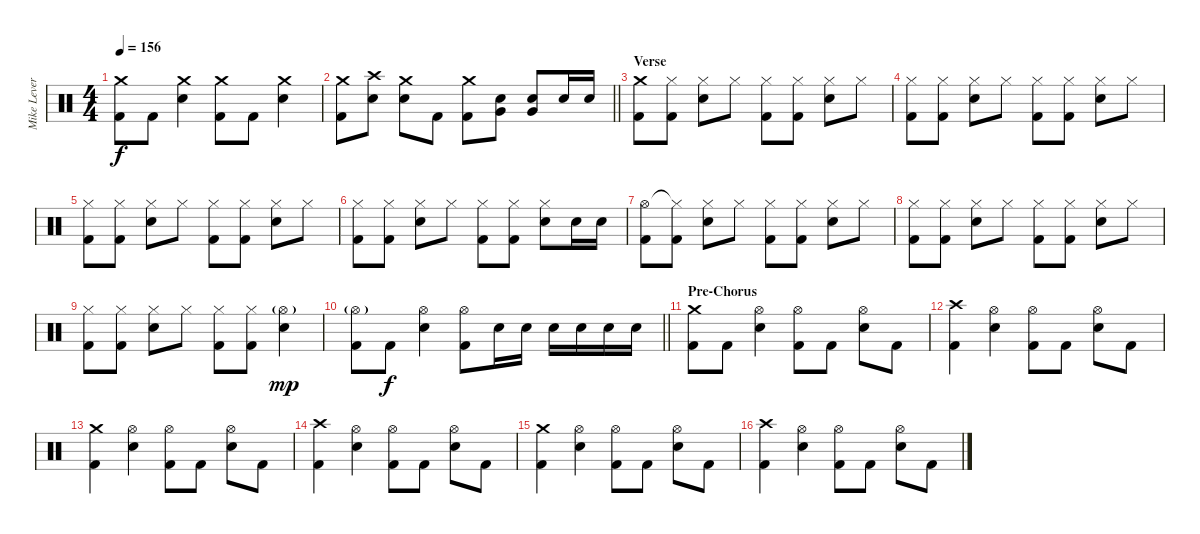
\track ("Mike Leverence - Drums" "Mike Lever") {instrument percussion}
\staff {score}
\articulation defaults
\ts (4 4)
\tempo 156
\clef neutral
\ks c
("Crash medium (hit)" "Kick (hit) 2").8{dy f} "Kick (hit) 2".8 ("Crash medium (hit)" "Electric Snare (hit)").4 ("Crash medium (hit)" "Kick (hit) 2").8 "Kick (hit) 2".8 ("Crash medium (hit)" "Electric Snare (hit)").4 |
\barLineRight lightlight
("Crash medium (hit)" "Kick (hit) 2").8 ("Crash high (hit)" "Electric Snare (hit)").8 ("Crash medium (hit)" "Electric Snare (hit)").8 "Kick (hit) 2".8 ("Crash medium (hit)" "Kick (hit) 2").8 ("Very Low Tom (hit)" "Electric Snare (hit)").8 ("Very Low Tom (hit)" "Electric Snare (hit)").8 "Electric Snare (hit)".16 "Electric Snare (hit)".16 |
\section ("" "Verse")
("Crash medium (hit)" "Kick (hit) 2").8 ("Hi-Hat (closed)" "Kick (hit) 2").8 ("Hi-Hat (closed)" "Electric Snare (hit)").8 "Hi-Hat (closed)".8 ("Hi-Hat (closed)" "Kick (hit) 2").8 ("Hi-Hat (closed)" "Kick (hit) 2").8 ("Hi-Hat (closed)" "Electric Snare (hit)").8 "Hi-Hat (closed)".8 |
("Hi-Hat (closed)" "Kick (hit) 2").8 ("Hi-Hat (closed)" "Kick (hit) 2").8 ("Hi-Hat (closed)" "Electric Snare (hit)").8 "Hi-Hat (closed)".8 ("Hi-Hat (closed)" "Kick (hit) 2").8 ("Hi-Hat (closed)" "Kick (hit) 2").8 ("Hi-Hat (closed)" "Electric Snare (hit)").8 "Hi-Hat (closed)".8 |
("Hi-Hat (closed)" "Kick (hit) 2").8 ("Hi-Hat (closed)" "Kick (hit) 2").8 ("Hi-Hat (closed)" "Electric Snare (hit)").8 "Hi-Hat (closed)".8 ("Hi-Hat (closed)" "Kick (hit) 2").8 ("Hi-Hat (closed)" "Kick (hit) 2").8 ("Hi-Hat (closed)" "Electric Snare (hit)").8 "Hi-Hat (closed)".8 |
("Hi-Hat (closed)" "Kick (hit) 2").8 ("Hi-Hat (closed)" "Kick (hit) 2").8 ("Hi-Hat (closed)" "Electric Snare (hit)").8 "Hi-Hat (closed)".8 ("Hi-Hat (closed)" "Kick (hit) 2").8 ("Hi-Hat (closed)" "Kick (hit) 2").8 ("Hi-Hat (closed)" "Electric Snare (hit)").8 "Electric Snare (hit)".16 "Electric Snare (hit)".16 |
("Hi-Hat (open)" "Kick (hit) 2").8 ("Hi-Hat (closed)"{t} "Kick (hit) 2").8 ("Hi-Hat (closed)" "Electric Snare (hit)").8 "Hi-Hat (closed)".8 ("Hi-Hat (closed)" "Kick (hit) 2").8 ("Hi-Hat (closed)" "Kick (hit) 2").8 ("Hi-Hat (closed)" "Electric Snare (hit)").8 "Hi-Hat (closed)".8 |
("Hi-Hat (closed)" "Kick (hit) 2").8 ("Hi-Hat (closed)" "Kick (hit) 2").8 ("Hi-Hat (closed)" "Electric Snare (hit)").8 "Hi-Hat (closed)".8 ("Hi-Hat (closed)" "Kick (hit) 2").8 ("Hi-Hat (closed)" "Kick (hit) 2").8 ("Hi-Hat (closed)" "Electric Snare (hit)").8 "Hi-Hat (closed)".8 |
("Hi-Hat (closed)" "Kick (hit) 2").8 ("Hi-Hat (closed)" "Kick (hit) 2").8 ("Hi-Hat (closed)" "Electric Snare (hit)").8 "Hi-Hat (closed)".8 ("Hi-Hat (closed)" "Kick (hit) 2").8 ("Hi-Hat (closed)" "Kick (hit) 2").8 ("Hi-Hat (open)"{g} "Electric Snare (hit)").4{dy mp} |
\barLineRight lightlight
("Hi-Hat (open)"{g} "Kick (hit) 2").8 "Kick (hit) 2".8{dy f} ("Hi-Hat (open)" "Electric Snare (hit)").4 ("Hi-Hat (open)" "Kick (hit) 2").8 "Electric Snare (hit)".16 "Electric Snare (hit)".16 "Electric Snare (hit)".16 "Electric Snare (hit)".16 "Electric Snare (hit)".16 "Electric Snare (hit)".16 |
\section ("" "Pre-Chorus")
("Crash medium (hit)" "Kick (hit) 2").8 "Kick (hit) 2".8 ("Hi-Hat (open)" "Electric Snare (hit)").4 ("Hi-Hat (open)" "Kick (hit) 2").8 "Kick (hit) 2".8 ("Hi-Hat (open)" "Electric Snare (hit)").8 "Kick (hit) 2".8 |
("Crash high (hit)" "Kick (hit) 2").4 ("Hi-Hat (open)" "Electric Snare (hit)").4 ("Hi-Hat (open)" "Kick (hit) 2").8 "Kick (hit) 2".8 ("Hi-Hat (open)" "Electric Snare (hit)").8 "Kick (hit) 2".8 |
("Crash medium (hit)" "Kick (hit) 2").4 ("Hi-Hat (open)" "Electric Snare (hit)").4 ("Hi-Hat (open)" "Kick (hit) 2").8 "Kick (hit) 2".8 ("Hi-Hat (open)" "Electric Snare (hit)").8 "Kick (hit) 2".8 |
("Crash high (hit)" "Kick (hit) 2").4 ("Hi-Hat (open)" "Electric Snare (hit)").4 ("Hi-Hat (open)" "Kick (hit) 2").8 "Kick (hit) 2".8 ("Hi-Hat (open)" "Electric Snare (hit)").8 "Kick (hit) 2".8 |
("Crash medium (hit)" "Kick (hit) 2").4 ("Hi-Hat (open)" "Electric Snare (hit)").4 ("Hi-Hat (open)" "Kick (hit) 2").8 "Kick (hit) 2".8 ("Hi-Hat (open)" "Electric Snare (hit)").8 "Kick (hit) 2".8 |
("Crash high (hit)" "Kick (hit) 2").4 ("Hi-Hat (open)" "Electric Snare (hit)").4 ("Hi-Hat (open)" "Kick (hit) 2").8 "Kick (hit) 2".8 ("Hi-Hat (open)" "Electric Snare (hit)").8 "Kick (hit) 2".8
